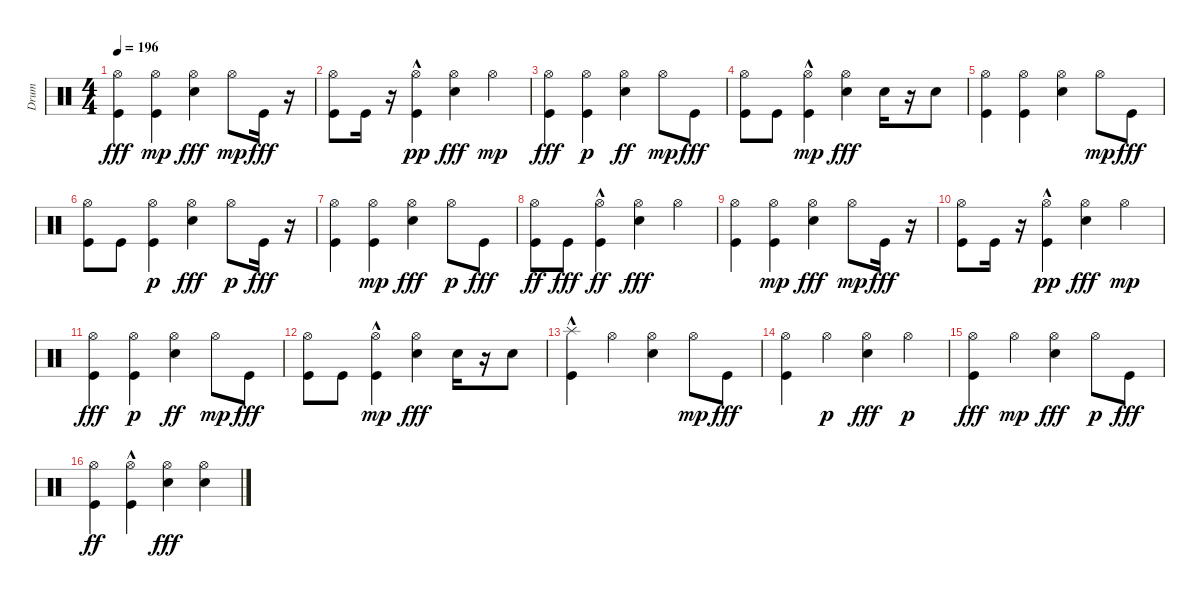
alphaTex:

\track ("Drum" "Drum") {instrument percussion}
\staff {score}
\articulation defaults
\ts (4 4)
\tempo 196
\clef neutral
\ks c
("Kick (hit)" "Hi-Hat (open)").4{dy fff} ("Kick (hit)" "Hi-Hat (open)").4{dy mp} ("Hi-Hat (open)" "Snare (hit) 2").4{dy fff} "Hi-Hat (open)".8{dy mp} "Kick (hit)".16{dy fff} r.16 |
("Kick (hit)" "Hi-Hat (open)").8 "Kick (hit)".16 r.16 ("Kick (hit)"{hac} "Hi-Hat (open)").4{dy pp} ("Hi-Hat (open)" "Snare (hit) 2").4{dy fff} "Hi-Hat (open)".4{dy mp} |
("Kick (hit)" "Hi-Hat (open)").4{dy fff} ("Kick (hit)" "Hi-Hat (open)").4{dy p} ("Snare (hit) 2" "Hi-Hat (open)").4{dy ff} "Hi-Hat (open)".8{dy mp} "Kick (hit)".8{dy fff} |
("Kick (hit)" "Hi-Hat (open)").8 "Kick (hit)".8 ("Kick (hit)"{hac} "Hi-Hat (open)").4{dy mp} ("Hi-Hat (open)" "Snare (hit) 2").4{dy fff} "Snare (hit) 2".16 r.16 "Snare (hit) 2".8 |
("Kick (hit)" "Hi-Hat (open)").4 ("Kick (hit)" "Hi-Hat (open)").4 ("Hi-Hat (open)" "Snare (hit) 2").4 "Hi-Hat (open)".8{dy mp} "Kick (hit)".8{dy fff} |
("Kick (hit)" "Hi-Hat (open)").8 "Kick (hit)".8 ("Kick (hit)" "Hi-Hat (open)").4{dy p} ("Snare (hit) 2" "Hi-Hat (open)").4{dy fff} "Hi-Hat (open)".8{dy p} "Kick (hit)".16{dy fff} r.16 |
("Kick (hit)" "Hi-Hat (open)").4 ("Kick (hit)" "Hi-Hat (open)").4{dy mp} ("Hi-Hat (open)" "Snare (hit) 2").4{dy fff} "Hi-Hat (open)".8{dy p} "Kick (hit)".8{dy fff} |
("Kick (hit)" "Hi-Hat (open)").8{dy ff} "Kick (hit)".8{dy fff} ("Kick (hit)"{hac} "Hi-Hat (open)").4{dy ff} ("Hi-Hat (open)" "Snare (hit) 2").4{dy fff} "Hi-Hat (open)".4 |
("Kick (hit)" "Hi-Hat (open)").4 ("Kick (hit)" "Hi-Hat (open)").4{dy mp} ("Hi-Hat (open)" "Snare (hit) 2").4{dy fff} "Hi-Hat (open)".8{dy mp} "Kick (hit)".16{dy fff} r.16 |
("Kick (hit)" "Hi-Hat (open)").8 "Kick (hit)".16 r.16 ("Kick (hit)"{hac} "Hi-Hat (open)").4{dy pp} ("Hi-Hat (open)" "Snare (hit) 2").4{dy fff} "Hi-Hat (open)".4{dy mp} |
("Kick (hit)" "Hi-Hat (open)").4{dy fff} ("Kick (hit)" "Hi-Hat (open)").4{dy p} ("Snare (hit) 2" "Hi-Hat (open)").4{dy ff} "Hi-Hat (open)".8{dy mp} "Kick (hit)".8{dy fff} |
("Kick (hit)" "Hi-Hat (open)").8 "Kick (hit)".8 ("Kick (hit)"{hac} "Hi-Hat (open)").4{dy mp} ("Hi-Hat (open)" "Snare (hit) 2").4{dy fff} "Snare (hit) 2".16 r.16 "Snare (hit) 2".8 |
("Splash (hit)" "Kick (hit)"{hac}).4 "Hi-Hat (open)".4 ("Hi-Hat (open)" "Snare (hit) 2").4 "Hi-Hat (open)".8{dy mp} "Kick (hit)".8{dy fff} |
("Kick (hit)" "Hi-Hat (open)").4 "Hi-Hat (open)".4{dy p} ("Snare (hit) 2" "Hi-Hat (open)").4{dy fff} "Hi-Hat (open)".4{dy p} |
("Kick (hit)" "Hi-Hat (open)").4{dy fff} "Hi-Hat (open)".4{dy mp} ("Hi-Hat (open)" "Snare (hit) 2").4{dy fff} "Hi-Hat (open)".8{dy p} "Kick (hit)".8{dy fff} |
("Kick (hit)" "Hi-Hat (open)").4{dy ff} ("Kick (hit)"{hac} "Hi-Hat (open)").4 ("Hi-Hat (open)" "Snare (hit) 2").4{dy fff} ("Metronome (bell)" "Hi-Hat (open)").4
